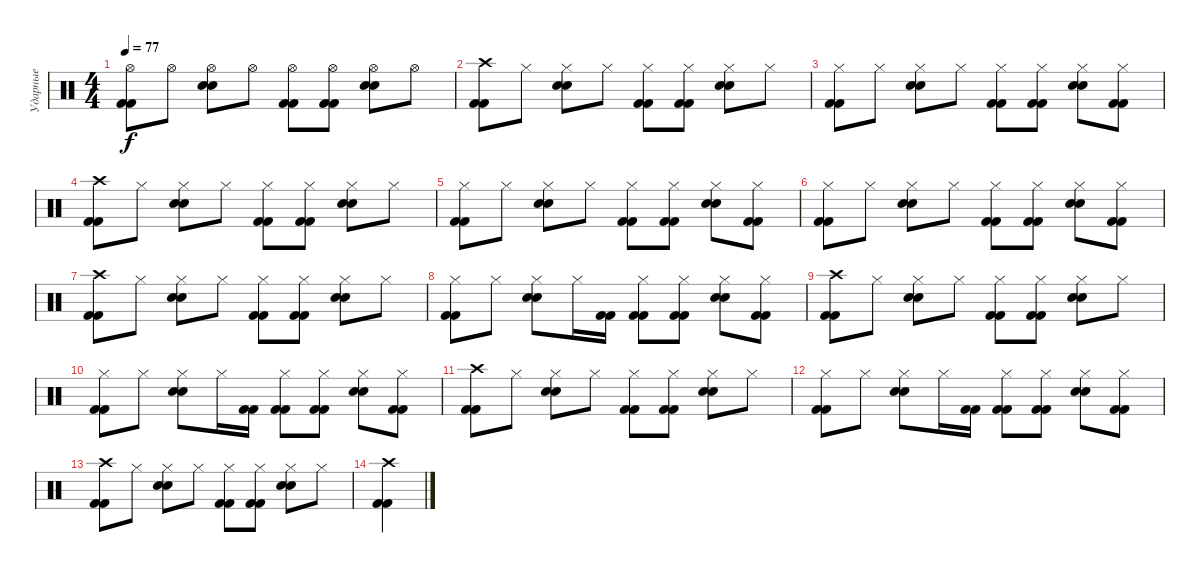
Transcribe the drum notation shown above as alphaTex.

\track ("Ударные" "Ударные") {instrument percussion}
\staff {score}
\articulation defaults
\ts (4 4)
\tempo 77
\clef neutral
\ks c
("Hi-Hat (open)" "Kick (hit) 2" "Kick (hit) 2").8{dy f} "Hi-Hat (open)".8 ("Hi-Hat (open)" "Snare (hit) 2" "Snare (hit) 2").8 "Hi-Hat (open)".8 ("Hi-Hat (open)" "Kick (hit) 2" "Kick (hit) 2").8 ("Hi-Hat (open)" "Kick (hit) 2" "Kick (hit) 2").8 ("Hi-Hat (open)" "Snare (hit) 2" "Snare (hit) 2").8 "Hi-Hat (open)".8 |
("Crash high (hit)" "Kick (hit) 2" "Kick (hit) 2").8 "Hi-Hat (closed)".8 ("Hi-Hat (closed)" "Snare (hit) 2" "Snare (hit) 2").8 "Hi-Hat (closed)".8 ("Hi-Hat (closed)" "Kick (hit) 2" "Kick (hit) 2").8 ("Hi-Hat (closed)" "Kick (hit) 2" "Kick (hit) 2").8 ("Hi-Hat (closed)" "Snare (hit) 2" "Snare (hit) 2").8 "Hi-Hat (closed)".8 |
("Hi-Hat (closed)" "Kick (hit) 2" "Kick (hit) 2").8 "Hi-Hat (closed)".8 ("Hi-Hat (closed)" "Snare (hit) 2" "Snare (hit) 2").8 "Hi-Hat (closed)".8 ("Hi-Hat (closed)" "Kick (hit) 2" "Kick (hit) 2").8 ("Hi-Hat (closed)" "Kick (hit) 2" "Kick (hit) 2").8 ("Hi-Hat (closed)" "Snare (hit) 2" "Snare (hit) 2").8 ("Hi-Hat (closed)" "Kick (hit) 2" "Kick (hit) 2").8 |
("Crash high (hit)" "Kick (hit) 2" "Kick (hit) 2").8 "Hi-Hat (closed)".8 ("Hi-Hat (closed)" "Snare (hit) 2" "Snare (hit) 2").8 "Hi-Hat (closed)".8 ("Hi-Hat (closed)" "Kick (hit) 2" "Kick (hit) 2").8 ("Hi-Hat (closed)" "Kick (hit) 2" "Kick (hit) 2").8 ("Hi-Hat (closed)" "Snare (hit) 2" "Snare (hit) 2").8 "Hi-Hat (closed)".8 |
("Hi-Hat (closed)" "Kick (hit) 2" "Kick (hit) 2").8 "Hi-Hat (closed)".8 ("Hi-Hat (closed)" "Snare (hit) 2" "Snare (hit) 2").8 "Hi-Hat (closed)".8 ("Hi-Hat (closed)" "Kick (hit) 2" "Kick (hit) 2").8 ("Hi-Hat (closed)" "Kick (hit) 2" "Kick (hit) 2").8 ("Hi-Hat (closed)" "Snare (hit) 2" "Snare (hit) 2").8 ("Hi-Hat (closed)" "Kick (hit) 2" "Kick (hit) 2").8 |
("Hi-Hat (closed)" "Kick (hit) 2" "Kick (hit) 2").8 "Hi-Hat (closed)".8 ("Hi-Hat (closed)" "Snare (hit) 2" "Snare (hit) 2").8 "Hi-Hat (closed)".8 ("Hi-Hat (closed)" "Kick (hit) 2" "Kick (hit) 2").8 ("Hi-Hat (closed)" "Kick (hit) 2" "Kick (hit) 2").8 ("Hi-Hat (closed)" "Snare (hit) 2" "Snare (hit) 2").8 ("Hi-Hat (closed)" "Kick (hit) 2" "Kick (hit) 2").8 |
("Crash high (hit)" "Kick (hit) 2" "Kick (hit) 2").8 "Hi-Hat (closed)".8 ("Hi-Hat (closed)" "Snare (hit) 2" "Snare (hit) 2").8 "Hi-Hat (closed)".8 ("Hi-Hat (closed)" "Kick (hit) 2" "Kick (hit) 2").8 ("Hi-Hat (closed)" "Kick (hit) 2" "Kick (hit) 2").8 ("Hi-Hat (closed)" "Snare (hit) 2" "Snare (hit) 2").8 "Hi-Hat (closed)".8 |
("Hi-Hat (closed)" "Kick (hit) 2" "Kick (hit) 2").8 "Hi-Hat (closed)".8 ("Hi-Hat (closed)" "Snare (hit) 2" "Snare (hit) 2").8 "Hi-Hat (closed)".16 ("Kick (hit) 2" "Kick (hit) 2").16 ("Hi-Hat (closed)" "Kick (hit) 2" "Kick (hit) 2").8 ("Hi-Hat (closed)" "Kick (hit) 2" "Kick (hit) 2").8 ("Hi-Hat (closed)" "Snare (hit) 2" "Snare (hit) 2").8 ("Hi-Hat (closed)" "Kick (hit) 2" "Kick (hit) 2").8 |
("Crash high (hit)" "Kick (hit) 2" "Kick (hit) 2").8 "Hi-Hat (closed)".8 ("Hi-Hat (closed)" "Snare (hit) 2" "Snare (hit) 2").8 "Hi-Hat (closed)".8 ("Hi-Hat (closed)" "Kick (hit) 2" "Kick (hit) 2").8 ("Hi-Hat (closed)" "Kick (hit) 2" "Kick (hit) 2").8 ("Hi-Hat (closed)" "Snare (hit) 2" "Snare (hit) 2").8 "Hi-Hat (closed)".8 |
("Hi-Hat (closed)" "Kick (hit) 2" "Kick (hit) 2").8 "Hi-Hat (closed)".8 ("Hi-Hat (closed)" "Snare (hit) 2" "Snare (hit) 2").8 "Hi-Hat (closed)".16 ("Kick (hit) 2" "Kick (hit) 2").16 ("Hi-Hat (closed)" "Kick (hit) 2" "Kick (hit) 2").8 ("Hi-Hat (closed)" "Kick (hit) 2" "Kick (hit) 2").8 ("Hi-Hat (closed)" "Snare (hit) 2" "Snare (hit) 2").8 ("Hi-Hat (closed)" "Kick (hit) 2" "Kick (hit) 2").8 |
("Crash high (hit)" "Kick (hit) 2" "Kick (hit) 2").8 "Hi-Hat (closed)".8 ("Hi-Hat (closed)" "Snare (hit) 2" "Snare (hit) 2").8 "Hi-Hat (closed)".8 ("Hi-Hat (closed)" "Kick (hit) 2" "Kick (hit) 2").8 ("Hi-Hat (closed)" "Kick (hit) 2" "Kick (hit) 2").8 ("Hi-Hat (closed)" "Snare (hit) 2" "Snare (hit) 2").8 "Hi-Hat (closed)".8 |
("Hi-Hat (closed)" "Kick (hit) 2" "Kick (hit) 2").8 "Hi-Hat (closed)".8 ("Hi-Hat (closed)" "Snare (hit) 2" "Snare (hit) 2").8 "Hi-Hat (closed)".16 ("Kick (hit) 2" "Kick (hit) 2").16 ("Hi-Hat (closed)" "Kick (hit) 2" "Kick (hit) 2").8 ("Hi-Hat (closed)" "Kick (hit) 2" "Kick (hit) 2").8 ("Hi-Hat (closed)" "Snare (hit) 2" "Snare (hit) 2").8 ("Hi-Hat (closed)" "Kick (hit) 2" "Kick (hit) 2").8 |
("Crash high (hit)" "Kick (hit) 2" "Kick (hit) 2").8 "Hi-Hat (closed)".8 ("Hi-Hat (closed)" "Snare (hit) 2" "Snare (hit) 2").8 "Hi-Hat (closed)".8 ("Hi-Hat (closed)" "Kick (hit) 2" "Kick (hit) 2").8 ("Hi-Hat (closed)" "Kick (hit) 2" "Kick (hit) 2").8 ("Hi-Hat (closed)" "Snare (hit) 2" "Snare (hit) 2").8 "Hi-Hat (closed)".8 |
("Crash high (hit)" "Kick (hit) 2" "Kick (hit) 2").4
